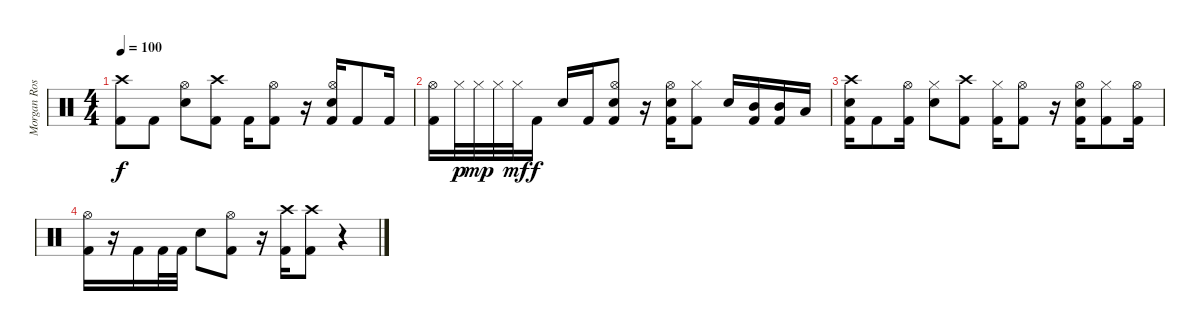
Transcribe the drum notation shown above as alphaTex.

\track ("Morgan Rose - Drums" "Morgan Ros") {instrument percussion}
\staff {score}
\articulation defaults
\ts (4 4)
\tempo 100
\clef neutral
\ks c
("Crash high (hit)" "Kick (hit) 2").8{dy f} "Kick (hit) 2".8 ("Hi-Hat (open)" "Electric Snare (hit)").8 ("Crash high (hit)" "Kick (hit) 2").8 "Kick (hit) 2".16 ("Hi-Hat (open)" "Kick (hit) 2").8 r.16 ("Hi-Hat (open)" "Electric Snare (hit)" "Kick (hit) 2").16 "Kick (hit) 2".8 "Kick (hit) 2".16 |
("Hi-Hat (open)" "Kick (hit) 2").16 "Hi-Hat (closed)".32{dy p} "Hi-Hat (closed)".32{dy mp} "Hi-Hat (closed)".32 "Hi-Hat (closed)".32{dy mf} "Kick (hit) 2".16{dy f} "Electric Snare (hit)".16 "Kick (hit) 2".16 ("Hi-Hat (open)" "Electric Snare (hit)" "Kick (hit) 2").8 r.16 ("Hi-Hat (open)" "Electric Snare (hit)" "Kick (hit) 2").16 ("Hi-Hat (closed)" "Kick (hit) 2").8 "Electric Snare (hit)".16 ("Mid Tom (hit)" "Kick (hit) 2").16 ("Mid Tom (hit)" "Kick (hit) 2").16 "Low Tom (hit)".16 |
("Crash high (hit)" "Electric Snare (hit)" "Kick (hit) 2").16 "Kick (hit) 2".8 ("Hi-Hat (open)" "Kick (hit) 2").16 ("Hi-Hat (closed)" "Electric Snare (hit)").8 ("Crash high (hit)" "Kick (hit) 2").8 ("Hi-Hat (closed)" "Kick (hit) 2").16 ("Hi-Hat (open)" "Kick (hit) 2").8 r.16 ("Hi-Hat (open)" "Electric Snare (hit)" "Kick (hit) 2").16 ("Hi-Hat (closed)" "Kick (hit) 2").8 ("Hi-Hat (open)" "Kick (hit) 2").16 |
("Hi-Hat (open)" "Kick (hit) 2").16 r.16 "Kick (hit) 2".16 "Kick (hit) 2".32 "Kick (hit) 2".32 "Electric Snare (hit)".8 ("Hi-Hat (open)" "Kick (hit) 2").8 r.16 ("Crash high (hit)" "Kick (hit) 2").16 ("Crash high (hit)" "Kick (hit) 2").8 r.4
